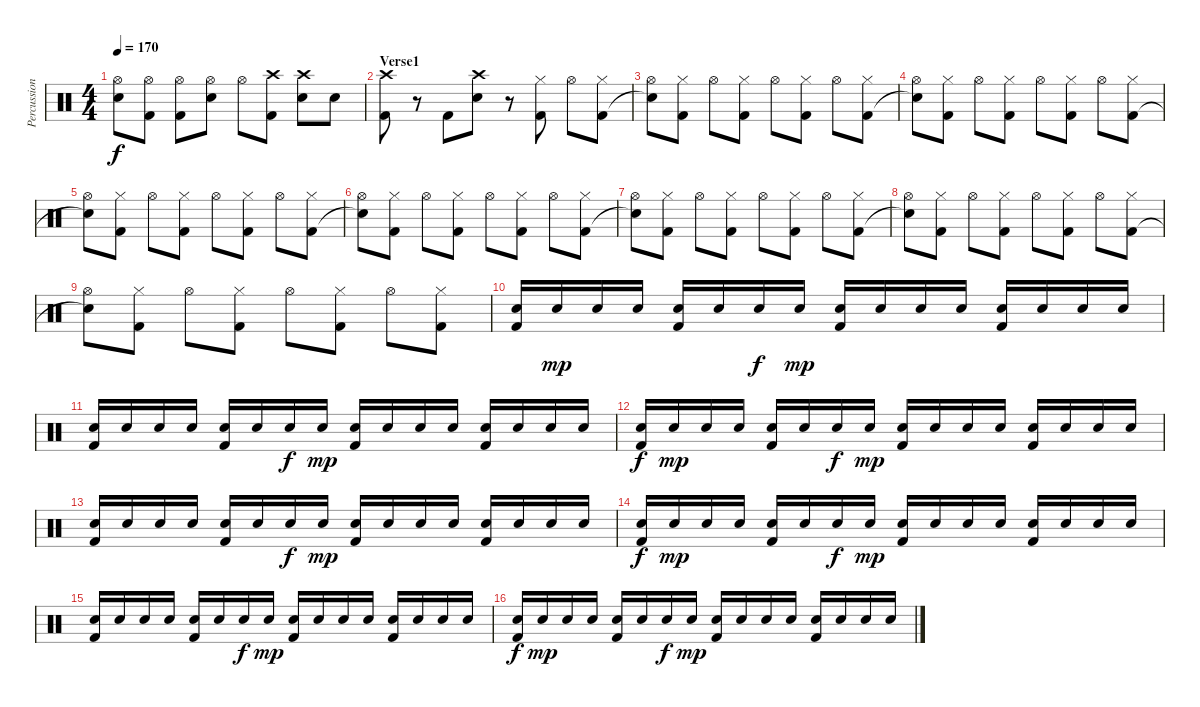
\track ("Percussion" "Percussion") {instrument percussion}
\staff {score}
\articulation defaults
\ts (4 4)
\tempo 170
\clef neutral
\ks c
("Snare (hit)"{t} "Hi-Hat (open)").8{dy f} ("Kick (hit) 2" "Hi-Hat (open)").8 ("Kick (hit) 2" "Hi-Hat (open)").8 ("Electric Snare (hit)" "Hi-Hat (open)").8 "Hi-Hat (open)".8 ("Kick (hit) 2" "Crash high (hit)").8 ("Electric Snare (hit)" "Crash high (hit)").8 "Electric Snare (hit)".8 |
\section ("" "Verse1")
("Kick (hit) 2" "Crash high (hit)").8 r.8 "Kick (hit) 2".8 ("Electric Snare (hit)" "Crash high (hit)").8 r.8 ("Kick (hit) 2" "Hi-Hat (closed)").8 "Hi-Hat (open)".8 ("Kick (hit) 2" "Hi-Hat (closed)").8 |
("Snare (hit)"{t} "Hi-Hat (open)").8 ("Kick (hit) 2" "Hi-Hat (closed)").8 "Hi-Hat (open)".8 ("Kick (hit) 2" "Hi-Hat (closed)").8 "Hi-Hat (open)".8 ("Kick (hit) 2" "Hi-Hat (closed)").8 "Hi-Hat (open)".8 ("Kick (hit) 2" "Hi-Hat (closed)").8 |
("Snare (hit)"{t} "Hi-Hat (open)").8 ("Kick (hit) 2" "Hi-Hat (closed)").8 "Hi-Hat (open)".8 ("Kick (hit) 2" "Hi-Hat (closed)").8 "Hi-Hat (open)".8 ("Kick (hit) 2" "Hi-Hat (closed)").8 "Hi-Hat (open)".8 ("Kick (hit) 2" "Hi-Hat (closed)").8 |
("Snare (hit)"{t} "Hi-Hat (open)").8 ("Kick (hit) 2" "Hi-Hat (closed)").8 "Hi-Hat (open)".8 ("Kick (hit) 2" "Hi-Hat (closed)").8 "Hi-Hat (open)".8 ("Kick (hit) 2" "Hi-Hat (closed)").8 "Hi-Hat (open)".8 ("Kick (hit) 2" "Hi-Hat (closed)").8 |
("Snare (hit)"{t} "Hi-Hat (open)").8 ("Kick (hit) 2" "Hi-Hat (closed)").8 "Hi-Hat (open)".8 ("Kick (hit) 2" "Hi-Hat (closed)").8 "Hi-Hat (open)".8 ("Kick (hit) 2" "Hi-Hat (closed)").8 "Hi-Hat (open)".8 ("Kick (hit) 2" "Hi-Hat (closed)").8 |
("Snare (hit)"{t} "Hi-Hat (open)").8 ("Kick (hit) 2" "Hi-Hat (closed)").8 "Hi-Hat (open)".8 ("Kick (hit) 2" "Hi-Hat (closed)").8 "Hi-Hat (open)".8 ("Kick (hit) 2" "Hi-Hat (closed)").8 "Hi-Hat (open)".8 ("Kick (hit) 2" "Hi-Hat (closed)").8 |
("Snare (hit)"{t} "Hi-Hat (open)").8 ("Kick (hit) 2" "Hi-Hat (closed)").8 "Hi-Hat (open)".8 ("Kick (hit) 2" "Hi-Hat (closed)").8 "Hi-Hat (open)".8 ("Kick (hit) 2" "Hi-Hat (closed)").8 "Hi-Hat (open)".8 ("Kick (hit) 2" "Hi-Hat (closed)").8 |
("Snare (hit)"{t} "Hi-Hat (open)").8 ("Kick (hit) 2" "Hi-Hat (closed)").8 "Hi-Hat (open)".8 ("Kick (hit) 2" "Hi-Hat (closed)").8 "Hi-Hat (open)".8 ("Kick (hit) 2" "Hi-Hat (closed)").8 "Hi-Hat (open)".8 ("Kick (hit) 2" "Hi-Hat (closed)").8 |
("Kick (hit) 2" "Electric Snare (hit)").16 "Snare (hit) 2".16{dy mp} "Snare (hit) 2".16 "Snare (hit) 2".16 ("Kick (hit) 2" "Snare (hit) 2").16 "Snare (hit) 2".16 "Electric Snare (hit)".16{dy f} "Snare (hit) 2".16{dy mp} ("Kick (hit) 2" "Snare (hit) 2").16 "Snare (hit) 2".16 "Snare (hit) 2".16 "Snare (hit) 2".16 ("Kick (hit) 2" "Snare (hit) 2").16 "Snare (hit) 2".16 "Snare (hit) 2".16 "Snare (hit) 2".16 |
("Kick (hit) 2" "Snare (hit) 2").16 "Snare (hit) 2".16 "Snare (hit) 2".16 "Snare (hit) 2".16 ("Kick (hit) 2" "Snare (hit) 2").16 "Snare (hit) 2".16 "Electric Snare (hit)".16{dy f} "Snare (hit) 2".16{dy mp} ("Kick (hit) 2" "Snare (hit) 2").16 "Snare (hit) 2".16 "Snare (hit) 2".16 "Snare (hit) 2".16 ("Kick (hit) 2" "Snare (hit) 2").16 "Snare (hit) 2".16 "Snare (hit) 2".16 "Snare (hit) 2".16 |
("Kick (hit) 2" "Electric Snare (hit)").16{dy f} "Snare (hit) 2".16{dy mp} "Snare (hit) 2".16 "Snare (hit) 2".16 ("Kick (hit) 2" "Snare (hit) 2").16 "Snare (hit) 2".16 "Electric Snare (hit)".16{dy f} "Snare (hit) 2".16{dy mp} ("Kick (hit) 2" "Snare (hit) 2").16 "Snare (hit) 2".16 "Snare (hit) 2".16 "Snare (hit) 2".16 ("Kick (hit) 2" "Snare (hit) 2").16 "Snare (hit) 2".16 "Snare (hit) 2".16 "Snare (hit) 2".16 |
("Kick (hit) 2" "Snare (hit) 2").16 "Snare (hit) 2".16 "Snare (hit) 2".16 "Snare (hit) 2".16 ("Kick (hit) 2" "Snare (hit) 2").16 "Snare (hit) 2".16 "Electric Snare (hit)".16{dy f} "Snare (hit) 2".16{dy mp} ("Kick (hit) 2" "Snare (hit) 2").16 "Snare (hit) 2".16 "Snare (hit) 2".16 "Snare (hit) 2".16 ("Kick (hit) 2" "Snare (hit) 2").16 "Snare (hit) 2".16 "Snare (hit) 2".16 "Snare (hit) 2".16 |
("Kick (hit) 2" "Electric Snare (hit)").16{dy f} "Snare (hit) 2".16{dy mp} "Snare (hit) 2".16 "Snare (hit) 2".16 ("Kick (hit) 2" "Snare (hit) 2").16 "Snare (hit) 2".16 "Electric Snare (hit)".16{dy f} "Snare (hit) 2".16{dy mp} ("Kick (hit) 2" "Snare (hit) 2").16 "Snare (hit) 2".16 "Snare (hit) 2".16 "Snare (hit) 2".16 ("Kick (hit) 2" "Snare (hit) 2").16 "Snare (hit) 2".16 "Snare (hit) 2".16 "Snare (hit) 2".16 |
("Kick (hit) 2" "Snare (hit) 2").16 "Snare (hit) 2".16 "Snare (hit) 2".16 "Snare (hit) 2".16 ("Kick (hit) 2" "Snare (hit) 2").16 "Snare (hit) 2".16 "Electric Snare (hit)".16{dy f} "Snare (hit) 2".16{dy mp} ("Kick (hit) 2" "Snare (hit) 2").16 "Snare (hit) 2".16 "Snare (hit) 2".16 "Snare (hit) 2".16 ("Kick (hit) 2" "Snare (hit) 2").16 "Snare (hit) 2".16 "Snare (hit) 2".16 "Snare (hit) 2".16 |
("Kick (hit) 2" "Electric Snare (hit)").16{dy f} "Snare (hit) 2".16{dy mp} "Snare (hit) 2".16 "Snare (hit) 2".16 ("Kick (hit) 2" "Snare (hit) 2").16 "Snare (hit) 2".16 "Electric Snare (hit)".16{dy f} "Snare (hit) 2".16{dy mp} ("Kick (hit) 2" "Snare (hit) 2").16 "Snare (hit) 2".16 "Snare (hit) 2".16 "Snare (hit) 2".16 ("Kick (hit) 2" "Snare (hit) 2").16 "Snare (hit) 2".16 "Snare (hit) 2".16 "Snare (hit) 2".16
